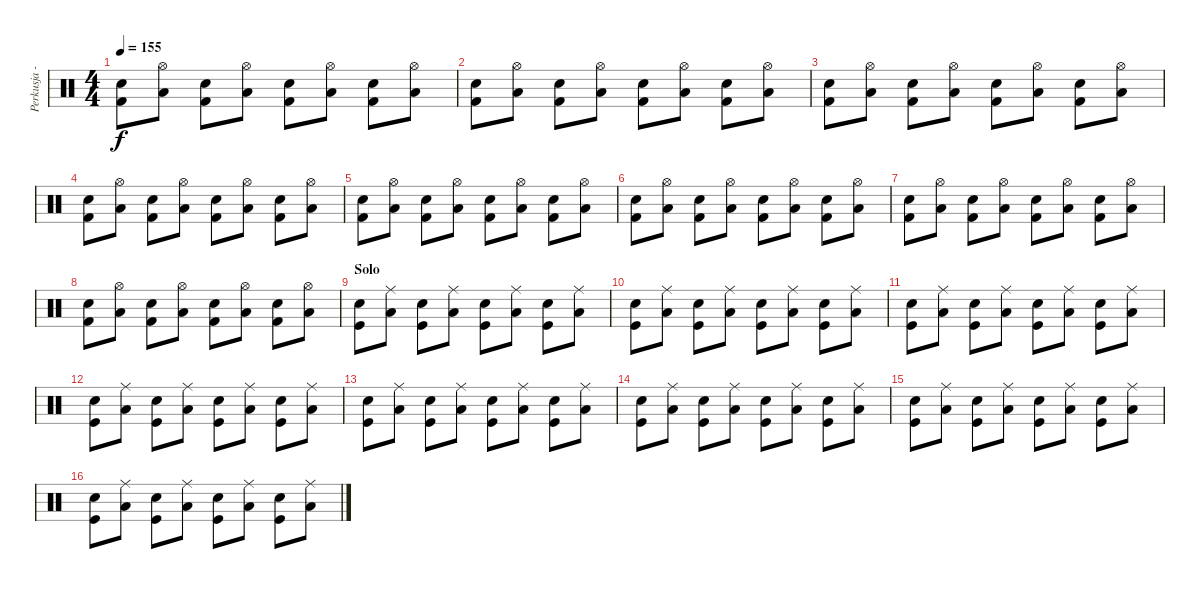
\track ("Perkusja - Mielony" "Perkusja -") {instrument percussion}
\staff {score}
\articulation defaults
\ts (4 4)
\tempo 155
\clef neutral
\ks c
("Snare (hit) 2" "Kick (hit) 2").8{dy f} ("Low Tom (hit)" "Hi-Hat (open)").8 ("Snare (hit) 2" "Kick (hit) 2").8 ("Low Tom (hit)" "Hi-Hat (open)").8 ("Snare (hit) 2" "Kick (hit) 2").8 ("Low Tom (hit)" "Hi-Hat (open)").8 ("Snare (hit) 2" "Kick (hit) 2").8 ("Low Tom (hit)" "Hi-Hat (open)").8 |
("Snare (hit) 2" "Kick (hit) 2").8 ("Low Tom (hit)" "Hi-Hat (open)").8 ("Snare (hit) 2" "Kick (hit) 2").8 ("Low Tom (hit)" "Hi-Hat (open)").8 ("Snare (hit) 2" "Kick (hit) 2").8 ("Low Tom (hit)" "Hi-Hat (open)").8 ("Snare (hit) 2" "Kick (hit) 2").8 ("Low Tom (hit)" "Hi-Hat (open)").8 |
("Snare (hit) 2" "Kick (hit) 2").8 ("Low Tom (hit)" "Hi-Hat (open)").8 ("Snare (hit) 2" "Kick (hit) 2").8 ("Low Tom (hit)" "Hi-Hat (open)").8 ("Snare (hit) 2" "Kick (hit) 2").8 ("Low Tom (hit)" "Hi-Hat (open)").8 ("Snare (hit) 2" "Kick (hit) 2").8 ("Low Tom (hit)" "Hi-Hat (open)").8 |
("Snare (hit) 2" "Kick (hit) 2").8 ("Low Tom (hit)" "Hi-Hat (open)").8 ("Snare (hit) 2" "Kick (hit) 2").8 ("Low Tom (hit)" "Hi-Hat (open)").8 ("Snare (hit) 2" "Kick (hit) 2").8 ("Low Tom (hit)" "Hi-Hat (open)").8 ("Snare (hit) 2" "Kick (hit) 2").8 ("Low Tom (hit)" "Hi-Hat (open)").8 |
("Snare (hit) 2" "Kick (hit) 2").8 ("Low Tom (hit)" "Hi-Hat (open)").8 ("Snare (hit) 2" "Kick (hit) 2").8 ("Low Tom (hit)" "Hi-Hat (open)").8 ("Snare (hit) 2" "Kick (hit) 2").8 ("Low Tom (hit)" "Hi-Hat (open)").8 ("Snare (hit) 2" "Kick (hit) 2").8 ("Low Tom (hit)" "Hi-Hat (open)").8 |
("Snare (hit) 2" "Kick (hit) 2").8 ("Low Tom (hit)" "Hi-Hat (open)").8 ("Snare (hit) 2" "Kick (hit) 2").8 ("Low Tom (hit)" "Hi-Hat (open)").8 ("Snare (hit) 2" "Kick (hit) 2").8 ("Low Tom (hit)" "Hi-Hat (open)").8 ("Snare (hit) 2" "Kick (hit) 2").8 ("Low Tom (hit)" "Hi-Hat (open)").8 |
("Snare (hit) 2" "Kick (hit) 2").8 ("Low Tom (hit)" "Hi-Hat (open)").8 ("Snare (hit) 2" "Kick (hit) 2").8 ("Low Tom (hit)" "Hi-Hat (open)").8 ("Snare (hit) 2" "Kick (hit) 2").8 ("Low Tom (hit)" "Hi-Hat (open)").8 ("Snare (hit) 2" "Kick (hit) 2").8 ("Low Tom (hit)" "Hi-Hat (open)").8 |
("Snare (hit) 2" "Kick (hit) 2").8 ("Low Tom (hit)" "Hi-Hat (open)").8 ("Snare (hit) 2" "Kick (hit) 2").8 ("Low Tom (hit)" "Hi-Hat (open)").8 ("Snare (hit) 2" "Kick (hit) 2").8 ("Low Tom (hit)" "Hi-Hat (open)").8 ("Snare (hit) 2" "Kick (hit) 2").8 ("Low Tom (hit)" "Hi-Hat (open)").8 |
\section ("" "Solo")
("Snare (hit) 2" "Kick (hit)").8 ("Ride (middle)" "Low Tom (hit)").8 ("Snare (hit) 2" "Kick (hit)").8 ("Ride (middle)" "Low Tom (hit)").8 ("Snare (hit) 2" "Kick (hit)").8 ("Ride (middle)" "Low Tom (hit)").8 ("Snare (hit) 2" "Kick (hit)").8 ("Ride (middle)" "Low Tom (hit)").8 |
("Snare (hit) 2" "Kick (hit)").8 ("Ride (middle)" "Low Tom (hit)").8 ("Snare (hit) 2" "Kick (hit)").8 ("Ride (middle)" "Low Tom (hit)").8 ("Snare (hit) 2" "Kick (hit)").8 ("Ride (middle)" "Low Tom (hit)").8 ("Snare (hit) 2" "Kick (hit)").8 ("Ride (middle)" "Low Tom (hit)").8 |
("Snare (hit) 2" "Kick (hit)").8 ("Ride (middle)" "Low Tom (hit)").8 ("Snare (hit) 2" "Kick (hit)").8 ("Ride (middle)" "Low Tom (hit)").8 ("Snare (hit) 2" "Kick (hit)").8 ("Ride (middle)" "Low Tom (hit)").8 ("Snare (hit) 2" "Kick (hit)").8 ("Ride (middle)" "Low Tom (hit)").8 |
("Snare (hit) 2" "Kick (hit)").8 ("Ride (middle)" "Low Tom (hit)").8 ("Snare (hit) 2" "Kick (hit)").8 ("Ride (middle)" "Low Tom (hit)").8 ("Snare (hit) 2" "Kick (hit)").8 ("Ride (middle)" "Low Tom (hit)").8 ("Snare (hit) 2" "Kick (hit)").8 ("Ride (middle)" "Low Tom (hit)").8 |
("Snare (hit) 2" "Kick (hit)").8 ("Ride (middle)" "Low Tom (hit)").8 ("Snare (hit) 2" "Kick (hit)").8 ("Ride (middle)" "Low Tom (hit)").8 ("Snare (hit) 2" "Kick (hit)").8 ("Ride (middle)" "Low Tom (hit)").8 ("Snare (hit) 2" "Kick (hit)").8 ("Ride (middle)" "Low Tom (hit)").8 |
("Snare (hit) 2" "Kick (hit)").8 ("Ride (middle)" "Low Tom (hit)").8 ("Snare (hit) 2" "Kick (hit)").8 ("Ride (middle)" "Low Tom (hit)").8 ("Snare (hit) 2" "Kick (hit)").8 ("Ride (middle)" "Low Tom (hit)").8 ("Snare (hit) 2" "Kick (hit)").8 ("Ride (middle)" "Low Tom (hit)").8 |
("Snare (hit) 2" "Kick (hit)").8 ("Ride (middle)" "Low Tom (hit)").8 ("Snare (hit) 2" "Kick (hit)").8 ("Ride (middle)" "Low Tom (hit)").8 ("Snare (hit) 2" "Kick (hit)").8 ("Ride (middle)" "Low Tom (hit)").8 ("Snare (hit) 2" "Kick (hit)").8 ("Ride (middle)" "Low Tom (hit)").8 |
("Snare (hit) 2" "Kick (hit)").8 ("Ride (middle)" "Low Tom (hit)").8 ("Snare (hit) 2" "Kick (hit)").8 ("Ride (middle)" "Low Tom (hit)").8 ("Snare (hit) 2" "Kick (hit)").8 ("Ride (middle)" "Low Tom (hit)").8 ("Snare (hit) 2" "Kick (hit)").8 ("Ride (middle)" "Low Tom (hit)").8
